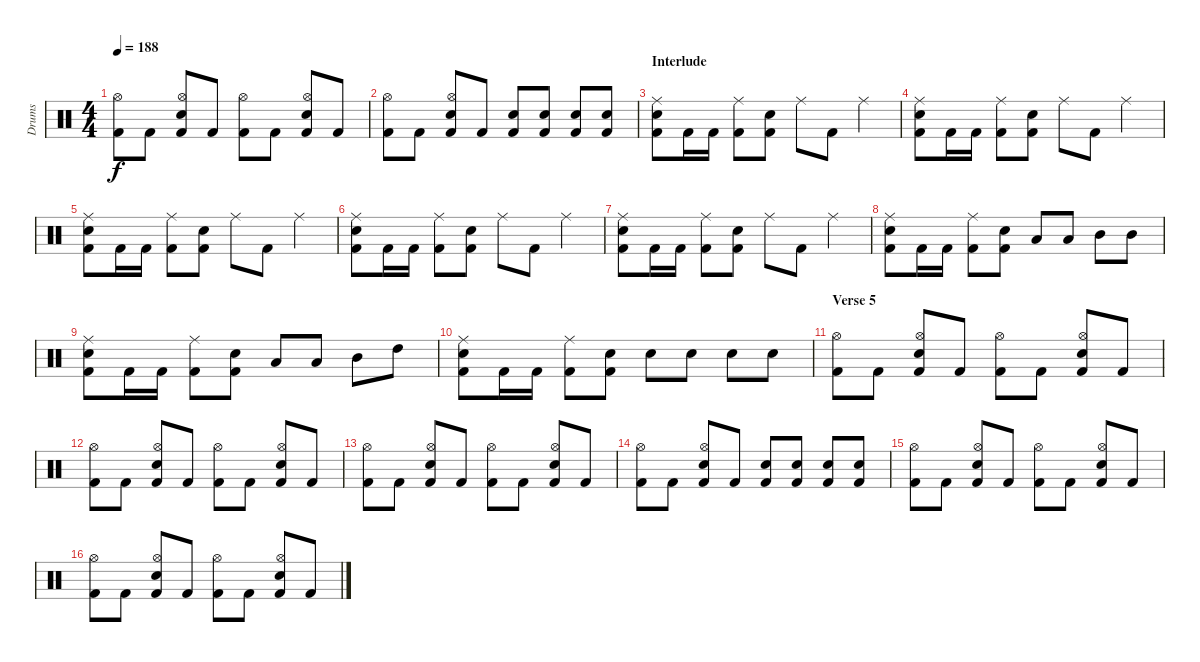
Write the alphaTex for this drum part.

\track ("Drums" "Drums") {instrument percussion}
\staff {score}
\articulation defaults
\ts (4 4)
\tempo 188
\clef neutral
\ks c
("Kick (hit) 2" "Hi-Hat (open)").8{dy f} "Kick (hit) 2".8 ("Kick (hit) 2" "Snare (hit) 2" "Hi-Hat (open)").8 "Kick (hit) 2".8 ("Kick (hit) 2" "Hi-Hat (open)").8 "Kick (hit) 2".8 ("Kick (hit) 2" "Snare (hit) 2" "Hi-Hat (open)").8 "Kick (hit) 2".8 |
("Kick (hit) 2" "Hi-Hat (open)").8 "Kick (hit) 2".8 ("Kick (hit) 2" "Snare (hit) 2" "Hi-Hat (open)").8 "Kick (hit) 2".8 ("Kick (hit) 2" "Snare (hit) 2").8 ("Kick (hit) 2" "Snare (hit) 2").8 ("Kick (hit) 2" "Snare (hit) 2").8 ("Kick (hit) 2" "Snare (hit) 2").8 |
\section ("" "Interlude")
("Kick (hit) 2" "Snare (hit) 2" "Ride (middle)").8 "Kick (hit) 2".16 "Kick (hit) 2".16 ("Kick (hit) 2" "Ride (middle)").8 ("Kick (hit) 2" "Snare (hit) 2").8 "Ride (middle)".8 "Kick (hit) 2".8 "Ride (middle)".4 |
("Kick (hit) 2" "Snare (hit) 2" "Ride (middle)").8 "Kick (hit) 2".16 "Kick (hit) 2".16 ("Kick (hit) 2" "Ride (middle)").8 ("Kick (hit) 2" "Snare (hit) 2").8 "Ride (middle)".8 "Kick (hit) 2".8 "Ride (middle)".4 |
("Kick (hit) 2" "Snare (hit) 2" "Ride (middle)").8 "Kick (hit) 2".16 "Kick (hit) 2".16 ("Kick (hit) 2" "Ride (middle)").8 ("Kick (hit) 2" "Snare (hit) 2").8 "Ride (middle)".8 "Kick (hit) 2".8 "Ride (middle)".4 |
("Kick (hit) 2" "Snare (hit) 2" "Ride (middle)").8 "Kick (hit) 2".16 "Kick (hit) 2".16 ("Kick (hit) 2" "Ride (middle)").8 ("Kick (hit) 2" "Snare (hit) 2").8 "Ride (middle)".8 "Kick (hit) 2".8 "Ride (middle)".4 |
("Kick (hit) 2" "Snare (hit) 2" "Ride (middle)").8 "Kick (hit) 2".16 "Kick (hit) 2".16 ("Kick (hit) 2" "Ride (middle)").8 ("Kick (hit) 2" "Snare (hit) 2").8 "Ride (middle)".8 "Kick (hit) 2".8 "Ride (middle)".4 |
("Kick (hit) 2" "Snare (hit) 2" "Ride (middle)").8 "Kick (hit) 2".16 "Kick (hit) 2".16 ("Kick (hit) 2" "Ride (middle)").8 ("Kick (hit) 2" "Snare (hit) 2").8 "Low Tom (hit)".8 "Low Tom (hit)".8 "Mid Tom (hit)".8 "Mid Tom (hit)".8 |
("Kick (hit) 2" "Snare (hit) 2" "Ride (middle)").8 "Kick (hit) 2".16 "Kick (hit) 2".16 ("Kick (hit) 2" "Ride (middle)").8 ("Kick (hit) 2" "Snare (hit) 2").8 "Low Tom (hit)".8 "Low Tom (hit)".8 "Mid Tom (hit)".8 "High Tom (hit)".8 |
("Kick (hit) 2" "Snare (hit) 2" "Ride (middle)").8 "Kick (hit) 2".16 "Kick (hit) 2".16 ("Kick (hit) 2" "Ride (middle)").8 ("Kick (hit) 2" "Snare (hit) 2").8 "Snare (hit) 2".8 "Snare (hit) 2".8 "Snare (hit) 2".8 "Snare (hit) 2".8 |
\section ("" "Verse 5")
("Kick (hit) 2" "Hi-Hat (open)").8 "Kick (hit) 2".8 ("Kick (hit) 2" "Snare (hit) 2" "Hi-Hat (open)").8 "Kick (hit) 2".8 ("Kick (hit) 2" "Hi-Hat (open)").8 "Kick (hit) 2".8 ("Kick (hit) 2" "Snare (hit) 2" "Hi-Hat (open)").8 "Kick (hit) 2".8 |
("Kick (hit) 2" "Hi-Hat (open)").8 "Kick (hit) 2".8 ("Kick (hit) 2" "Snare (hit) 2" "Hi-Hat (open)").8 "Kick (hit) 2".8 ("Kick (hit) 2" "Hi-Hat (open)").8 "Kick (hit) 2".8 ("Kick (hit) 2" "Snare (hit) 2" "Hi-Hat (open)").8 "Kick (hit) 2".8 |
("Kick (hit) 2" "Hi-Hat (open)").8 "Kick (hit) 2".8 ("Kick (hit) 2" "Snare (hit) 2" "Hi-Hat (open)").8 "Kick (hit) 2".8 ("Kick (hit) 2" "Hi-Hat (open)").8 "Kick (hit) 2".8 ("Kick (hit) 2" "Snare (hit) 2" "Hi-Hat (open)").8 "Kick (hit) 2".8 |
("Kick (hit) 2" "Hi-Hat (open)").8 "Kick (hit) 2".8 ("Kick (hit) 2" "Snare (hit) 2" "Hi-Hat (open)").8 "Kick (hit) 2".8 ("Kick (hit) 2" "Snare (hit) 2").8 ("Kick (hit) 2" "Snare (hit) 2").8 ("Kick (hit) 2" "Snare (hit) 2").8 ("Kick (hit) 2" "Snare (hit) 2").8 |
("Kick (hit) 2" "Hi-Hat (open)").8 "Kick (hit) 2".8 ("Kick (hit) 2" "Snare (hit) 2" "Hi-Hat (open)").8 "Kick (hit) 2".8 ("Kick (hit) 2" "Hi-Hat (open)").8 "Kick (hit) 2".8 ("Kick (hit) 2" "Snare (hit) 2" "Hi-Hat (open)").8 "Kick (hit) 2".8 |
("Kick (hit) 2" "Hi-Hat (open)").8 "Kick (hit) 2".8 ("Kick (hit) 2" "Snare (hit) 2" "Hi-Hat (open)").8 "Kick (hit) 2".8 ("Kick (hit) 2" "Hi-Hat (open)").8 "Kick (hit) 2".8 ("Kick (hit) 2" "Snare (hit) 2" "Hi-Hat (open)").8 "Kick (hit) 2".8
